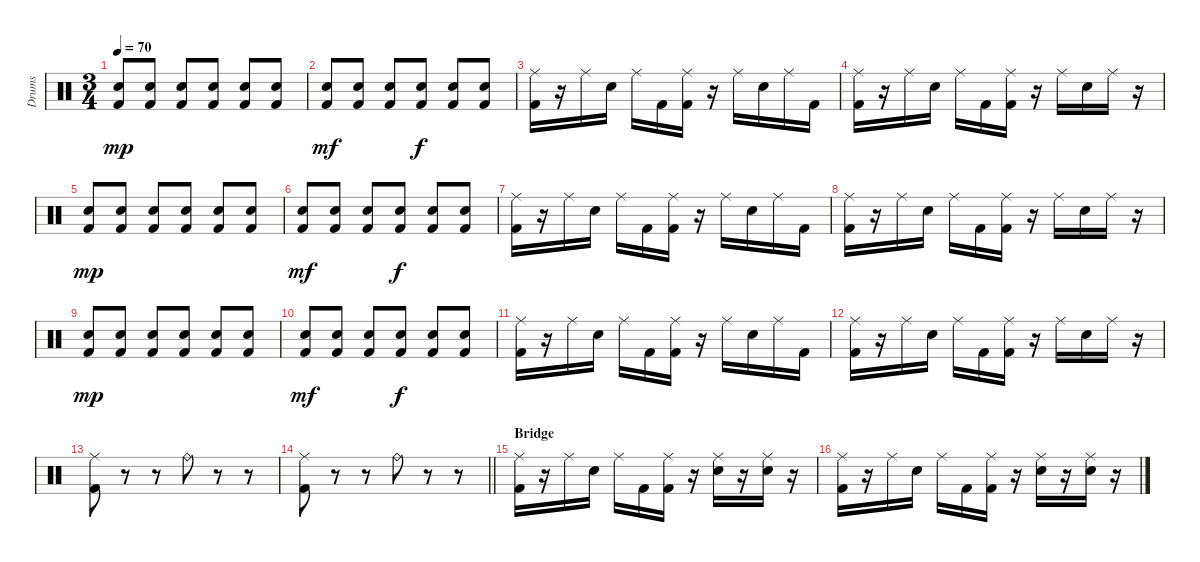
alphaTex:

\track ("Drums" "Drums") {instrument percussion}
\staff {score}
\articulation defaults
\ts (3 4)
\tempo 70
\clef neutral
\ks c
("Electric Snare (hit)" "Kick (hit) 2").8{dy mp} ("Electric Snare (hit)" "Kick (hit) 2").8 ("Electric Snare (hit)" "Kick (hit) 2").8 ("Electric Snare (hit)" "Kick (hit) 2").8 ("Electric Snare (hit)" "Kick (hit) 2").8 ("Electric Snare (hit)" "Kick (hit) 2").8 |
("Electric Snare (hit)" "Kick (hit) 2").8{dy mf} ("Electric Snare (hit)" "Kick (hit) 2").8 ("Electric Snare (hit)" "Kick (hit) 2").8 ("Electric Snare (hit)" "Kick (hit) 2").8{dy f} ("Electric Snare (hit)" "Kick (hit) 2").8 ("Electric Snare (hit)" "Kick (hit) 2").8 |
("Ride (middle)" "Kick (hit) 2").16 r.16 "Ride (middle)".16 "Electric Snare (hit)".16 "Ride (middle)".16 "Kick (hit) 2".16 ("Ride (middle)" "Kick (hit) 2").16 r.16 "Ride (middle)".16 "Electric Snare (hit)".16 "Ride (middle)".16 "Kick (hit) 2".16 |
("Ride (middle)" "Kick (hit) 2").16 r.16 "Ride (middle)".16 "Electric Snare (hit)".16 "Ride (middle)".16 "Kick (hit) 2".16 ("Ride (middle)" "Kick (hit) 2").16 r.16 "Ride (middle)".16 "Electric Snare (hit)".16 "Ride (middle)".16 r.16 |
("Electric Snare (hit)" "Kick (hit) 2").8{dy mp} ("Electric Snare (hit)" "Kick (hit) 2").8 ("Electric Snare (hit)" "Kick (hit) 2").8 ("Electric Snare (hit)" "Kick (hit) 2").8 ("Electric Snare (hit)" "Kick (hit) 2").8 ("Electric Snare (hit)" "Kick (hit) 2").8 |
("Electric Snare (hit)" "Kick (hit) 2").8{dy mf} ("Electric Snare (hit)" "Kick (hit) 2").8 ("Electric Snare (hit)" "Kick (hit) 2").8 ("Electric Snare (hit)" "Kick (hit) 2").8{dy f} ("Electric Snare (hit)" "Kick (hit) 2").8 ("Electric Snare (hit)" "Kick (hit) 2").8 |
("Ride (middle)" "Kick (hit) 2").16 r.16 "Ride (middle)".16 "Electric Snare (hit)".16 "Ride (middle)".16 "Kick (hit) 2".16 ("Ride (middle)" "Kick (hit) 2").16 r.16 "Ride (middle)".16 "Electric Snare (hit)".16 "Ride (middle)".16 "Kick (hit) 2".16 |
("Ride (middle)" "Kick (hit) 2").16 r.16 "Ride (middle)".16 "Electric Snare (hit)".16 "Ride (middle)".16 "Kick (hit) 2".16 ("Ride (middle)" "Kick (hit) 2").16 r.16 "Ride (middle)".16 "Electric Snare (hit)".16 "Ride (middle)".16 r.16 |
("Electric Snare (hit)" "Kick (hit) 2").8{dy mp} ("Electric Snare (hit)" "Kick (hit) 2").8 ("Electric Snare (hit)" "Kick (hit) 2").8 ("Electric Snare (hit)" "Kick (hit) 2").8 ("Electric Snare (hit)" "Kick (hit) 2").8 ("Electric Snare (hit)" "Kick (hit) 2").8 |
("Electric Snare (hit)" "Kick (hit) 2").8{dy mf} ("Electric Snare (hit)" "Kick (hit) 2").8 ("Electric Snare (hit)" "Kick (hit) 2").8 ("Electric Snare (hit)" "Kick (hit) 2").8{dy f} ("Electric Snare (hit)" "Kick (hit) 2").8 ("Electric Snare (hit)" "Kick (hit) 2").8 |
("Ride (middle)" "Kick (hit) 2").16 r.16 "Ride (middle)".16 "Electric Snare (hit)".16 "Ride (middle)".16 "Kick (hit) 2".16 ("Ride (middle)" "Kick (hit) 2").16 r.16 "Ride (middle)".16 "Electric Snare (hit)".16 "Ride (middle)".16 "Kick (hit) 2".16 |
("Ride (middle)" "Kick (hit) 2").16 r.16 "Ride (middle)".16 "Electric Snare (hit)".16 "Ride (middle)".16 "Kick (hit) 2".16 ("Ride (middle)" "Kick (hit) 2").16 r.16 "Ride (middle)".16 "Electric Snare (hit)".16 "Ride (middle)".16 r.16 |
("Ride (middle)" "Kick (hit) 2").8 r.8 r.8 "Ride (bell)".8 r.8 r.8 |
\barLineRight lightlight
("Ride (middle)" "Kick (hit) 2").8 r.8 r.8 "Ride (bell)".8 r.8 r.8 |
\section ("" "Bridge")
("Ride (middle)" "Kick (hit) 2").16 r.16 "Ride (middle)".16 "Electric Snare (hit)".16 "Ride (middle)".16 "Kick (hit) 2".16 ("Ride (middle)" "Kick (hit) 2").16 r.16 ("Ride (middle)" "Electric Snare (hit)").16 r.16 ("Ride (middle)" "Electric Snare (hit)").16 r.16 |
("Ride (middle)" "Kick (hit) 2").16 r.16 "Ride (middle)".16 "Electric Snare (hit)".16 "Ride (middle)".16 "Kick (hit) 2".16 ("Ride (middle)" "Kick (hit) 2").16 r.16 ("Ride (middle)" "Electric Snare (hit)").16 r.16 ("Ride (middle)" "Electric Snare (hit)").16 r.16
